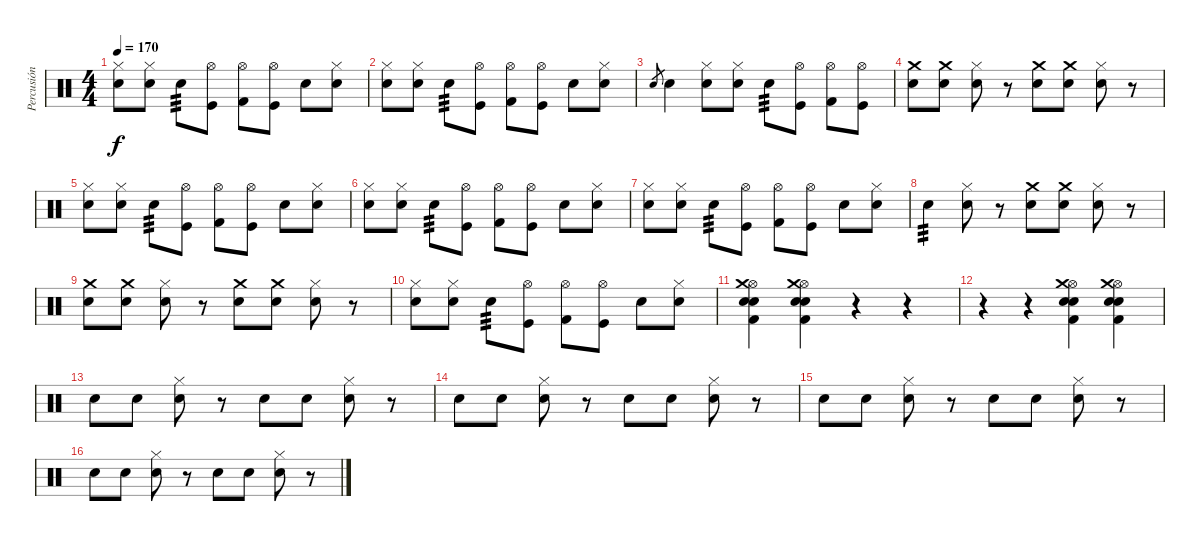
\track ("Percusión" "Percusión") {instrument percussion}
\staff {score}
\articulation defaults
\ts (4 4)
\tempo 170
\clef neutral
\ks c
("Hi-Hat (closed)" "Electric Snare (hit)").8{dy f} ("Hi-Hat (closed)" "Electric Snare (hit)").8 "Snare (hit) 2".8{tp 3} ("Hi-Hat (open)" "Kick (hit)").8 ("Hi-Hat (open)" "Kick (hit) 2").8 ("Hi-Hat (open)" "Kick (hit)").8 "Electric Snare (hit)".8 ("Hi-Hat (closed)" "Electric Snare (hit)").8 |
("Hi-Hat (closed)" "Electric Snare (hit)").8 ("Hi-Hat (closed)" "Electric Snare (hit)").8 "Snare (hit) 2".8{tp 3} ("Hi-Hat (open)" "Kick (hit)").8 ("Hi-Hat (open)" "Kick (hit) 2").8 ("Hi-Hat (open)" "Kick (hit)").8 "Electric Snare (hit)".8 ("Hi-Hat (closed)" "Electric Snare (hit)").8 |
"Electric Snare (hit)".8{gr} "Electric Snare (hit)".4 ("Hi-Hat (closed)" "Electric Snare (hit)").8 ("Hi-Hat (closed)" "Electric Snare (hit)").8 "Snare (hit) 2".8{tp 3} ("Hi-Hat (open)" "Kick (hit)").8 ("Hi-Hat (open)" "Kick (hit) 2").8 ("Hi-Hat (open)" "Kick (hit)").8 |
("Electric Snare (hit)" "Crash medium (hit)").8 ("Electric Snare (hit)" "Crash medium (hit)").8 ("Hi-Hat (closed)" "Snare (hit) 2").8 r.8 ("Electric Snare (hit)" "Crash medium (hit)").8 ("Electric Snare (hit)" "Crash medium (hit)").8 ("Hi-Hat (closed)" "Snare (hit) 2").8 r.8 |
("Hi-Hat (closed)" "Electric Snare (hit)").8 ("Hi-Hat (closed)" "Electric Snare (hit)").8 "Snare (hit) 2".8{tp 3} ("Hi-Hat (open)" "Kick (hit)").8 ("Hi-Hat (open)" "Kick (hit) 2").8 ("Hi-Hat (open)" "Kick (hit)").8 "Electric Snare (hit)".8 ("Hi-Hat (closed)" "Electric Snare (hit)").8 |
("Hi-Hat (closed)" "Electric Snare (hit)").8 ("Hi-Hat (closed)" "Electric Snare (hit)").8 "Snare (hit) 2".8{tp 3} ("Hi-Hat (open)" "Kick (hit)").8 ("Hi-Hat (open)" "Kick (hit) 2").8 ("Hi-Hat (open)" "Kick (hit)").8 "Electric Snare (hit)".8 ("Hi-Hat (closed)" "Electric Snare (hit)").8 |
("Hi-Hat (closed)" "Electric Snare (hit)").8 ("Hi-Hat (closed)" "Electric Snare (hit)").8 "Snare (hit) 2".8{tp 3} ("Hi-Hat (open)" "Kick (hit)").8 ("Hi-Hat (open)" "Kick (hit) 2").8 ("Hi-Hat (open)" "Kick (hit)").8 "Electric Snare (hit)".8 ("Hi-Hat (closed)" "Electric Snare (hit)").8 |
"Electric Snare (hit)".4{tp 3} ("Hi-Hat (closed)" "Snare (hit) 2").8 r.8 ("Electric Snare (hit)" "Crash medium (hit)").8 ("Electric Snare (hit)" "Crash medium (hit)").8 ("Hi-Hat (closed)" "Snare (hit) 2").8 r.8 |
("Electric Snare (hit)" "Crash medium (hit)").8 ("Electric Snare (hit)" "Crash medium (hit)").8 ("Hi-Hat (closed)" "Snare (hit) 2").8 r.8 ("Electric Snare (hit)" "Crash medium (hit)").8 ("Electric Snare (hit)" "Crash medium (hit)").8 ("Hi-Hat (closed)" "Snare (hit) 2").8 r.8 |
("Hi-Hat (closed)" "Electric Snare (hit)").8 ("Hi-Hat (closed)" "Electric Snare (hit)").8 "Snare (hit) 2".8{tp 3} ("Hi-Hat (open)" "Kick (hit)").8 ("Hi-Hat (open)" "Kick (hit) 2").8 ("Hi-Hat (open)" "Kick (hit)").8 "Electric Snare (hit)".8 ("Hi-Hat (closed)" "Electric Snare (hit)").8 |
("Hi-Hat (open)" "Crash medium (hit)" "Electric Snare (hit)" "Snare (hit) 2" "Kick (hit) 2").4 ("Hi-Hat (open)" "Crash medium (hit)" "Electric Snare (hit)" "Snare (hit) 2" "Kick (hit) 2").4 r.4 r.4 |
r.4 r.4 ("Hi-Hat (open)" "Crash medium (hit)" "Electric Snare (hit)" "Snare (hit) 2" "Kick (hit) 2").4 ("Hi-Hat (open)" "Crash medium (hit)" "Electric Snare (hit)" "Snare (hit) 2" "Kick (hit) 2").4 |
"Electric Snare (hit)".8 "Electric Snare (hit)".8 ("Hi-Hat (closed)" "Snare (hit) 2").8 r.8 "Electric Snare (hit)".8 "Electric Snare (hit)".8 ("Hi-Hat (closed)" "Snare (hit) 2").8 r.8 |
"Electric Snare (hit)".8 "Electric Snare (hit)".8 ("Hi-Hat (closed)" "Snare (hit) 2").8 r.8 "Electric Snare (hit)".8 "Electric Snare (hit)".8 ("Hi-Hat (closed)" "Snare (hit) 2").8 r.8 |
"Electric Snare (hit)".8 "Electric Snare (hit)".8 ("Hi-Hat (closed)" "Snare (hit) 2").8 r.8 "Electric Snare (hit)".8 "Electric Snare (hit)".8 ("Hi-Hat (closed)" "Snare (hit) 2").8 r.8 |
"Electric Snare (hit)".8 "Electric Snare (hit)".8 ("Hi-Hat (closed)" "Snare (hit) 2").8 r.8 "Electric Snare (hit)".8 "Electric Snare (hit)".8 ("Hi-Hat (closed)" "Snare (hit) 2").8 r.8
